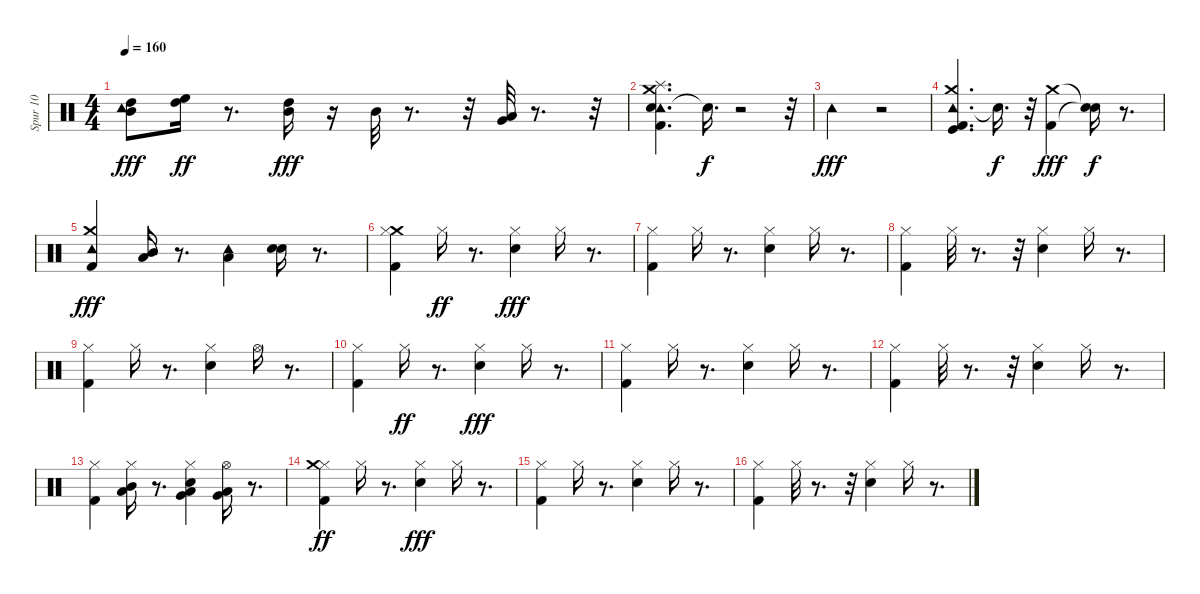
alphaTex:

\track ("Spur 10" "Spur 10") {instrument percussion}
\staff {score}
\articulation defaults
\ts (4 4)
\tempo 160
\clef neutral
\ks c
("Tambourine (hit)" "High Tom (hit)" "Mid Tom (hit)").8{dy fff} ("High Tom (hit)" "High Floor Tom (hit)").16{dy ff} r.8{d} ("Mid Tom (hit)" "High Tom (hit)").16{dy fff} r.16 "Mid Tom (hit)".32 r.8{d} r.32 ("Low Tom (hit)" "Very Low Tom (hit)").32 r.8{d} r.32 |
("Tambourine (hit)" "Crash medium (hit)" "Splash (hit)" "Kick (hit) 2" "Snare (hit) 2").4{d} "Snare (hit)"{t}.16{d dy f} r.2 r.32 |
"Tambourine (hit)".2{dy fff} r.2 |
("Tambourine (hit)" "Kick (hit) 2" "Kick (hit)" "Crash medium (hit)").4{d} "Snare (hit)"{t}.16{d dy f} r.32 ("Kick (hit) 2" "Crash medium (hit)").4{dy fff} ("Snare (hit)"{t} "Snare (hit)"{t}).16{dy f} r.8{d} |
("Tambourine (hit)" "Kick (hit) 2" "Crash medium (hit)").4{dy fff} ("Mid Tom (hit)" "Low Tom (hit)").16 r.8{d} ("Tambourine (hit)" "Low Floor Tom (hit)").4 ("Snare (hit) 2" "Electric Snare (hit)").16 r.8{d} |
("Crash medium (hit)" "Kick (hit) 2" "Hi-Hat (closed)").4 "Hi-Hat (closed)".16{dy ff} r.8{d} ("Snare (hit) 2" "Hi-Hat (closed)").4{dy fff} "Hi-Hat (closed)".16 r.8{d} |
("Kick (hit) 2" "Hi-Hat (closed)").4 "Hi-Hat (closed)".16 r.8{d} ("Snare (hit) 2" "Hi-Hat (closed)").4 "Hi-Hat (closed)".16 r.8{d} |
("Kick (hit) 2" "Hi-Hat (closed)").4 "Hi-Hat (closed)".32 r.8{d} r.32 ("Snare (hit) 2" "Hi-Hat (closed)").4 "Hi-Hat (closed)".16 r.8{d} |
("Kick (hit) 2" "Hi-Hat (closed)").4 "Hi-Hat (closed)".16 r.8{d} ("Snare (hit) 2" "Hi-Hat (closed)").4 "Hi-Hat (open)".16 r.8{d} |
("Kick (hit) 2" "Hi-Hat (closed)").4 "Hi-Hat (closed)".16{dy ff} r.8{d} ("Snare (hit) 2" "Hi-Hat (closed)").4{dy fff} "Hi-Hat (closed)".16 r.8{d} |
("Kick (hit) 2" "Hi-Hat (closed)").4 "Hi-Hat (closed)".16 r.8{d} ("Snare (hit) 2" "Hi-Hat (closed)").4 "Hi-Hat (closed)".16 r.8{d} |
("Kick (hit) 2" "Hi-Hat (closed)").4 "Hi-Hat (closed)".32 r.8{d} r.32 ("Snare (hit) 2" "Hi-Hat (closed)").4 "Hi-Hat (closed)".16 r.8{d} |
("Kick (hit) 2" "Hi-Hat (closed)").4 ("Hi-Hat (closed)" "Mid Tom (hit)" "Low Tom (hit)").16 r.8{d} ("Snare (hit) 2" "Hi-Hat (closed)" "Very Low Tom (hit)" "Low Tom (hit)").4 ("Hi-Hat (open)" "Very Low Tom (hit)" "Low Floor Tom (hit)").16 r.8{d} |
("Kick (hit) 2" "Hi-Hat (closed)" "Crash medium (hit)").4{dy ff} "Hi-Hat (closed)".16 r.8{d} ("Snare (hit) 2" "Hi-Hat (closed)").4{dy fff} "Hi-Hat (closed)".16 r.8{d} |
("Kick (hit) 2" "Hi-Hat (closed)").4 "Hi-Hat (closed)".16 r.8{d} ("Snare (hit) 2" "Hi-Hat (closed)").4 "Hi-Hat (closed)".16 r.8{d} |
("Kick (hit) 2" "Hi-Hat (closed)").4 "Hi-Hat (closed)".32 r.8{d} r.32 ("Snare (hit) 2" "Hi-Hat (closed)").4 "Hi-Hat (closed)".16 r.8{d}
